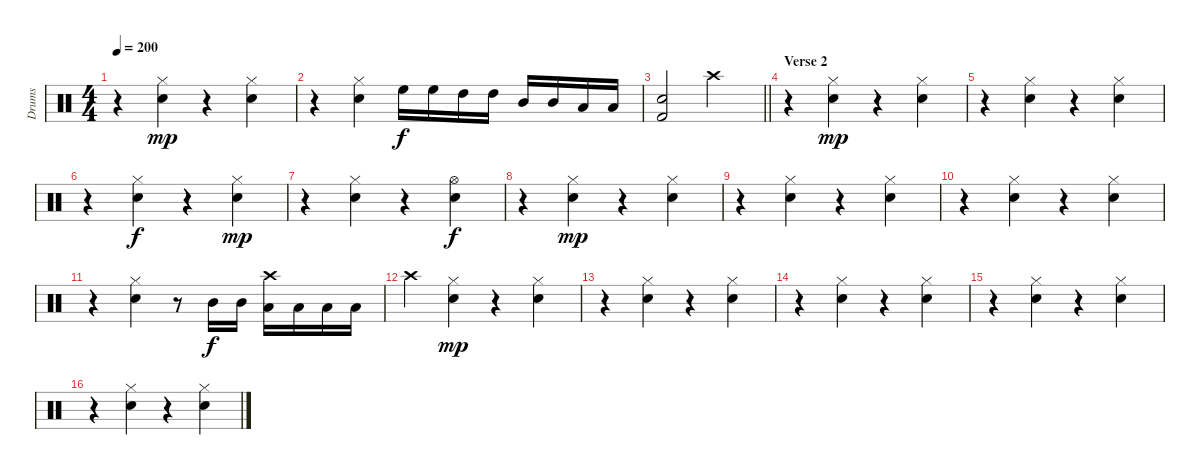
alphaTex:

\track ("Drums" "Drums") {instrument percussion}
\staff {score}
\articulation defaults
\ts (4 4)
\tempo 200
\clef neutral
\ks c
r.4{dy mp} ("Hi-Hat (closed)" "Snare (hit) 2").4 r.4 ("Hi-Hat (closed)" "Snare (hit) 2").4 |
r.4 ("Hi-Hat (closed)" "Snare (hit) 2").4 "High Floor Tom (hit)".16{dy f} "High Floor Tom (hit)".16 "High Tom (hit)".16 "High Tom (hit)".16 "Mid Tom (hit)".16 "Mid Tom (hit)".16 "Low Tom (hit)".16 "Low Tom (hit)".16 |
\barLineRight lightlight
("Snare (hit) 2" "Kick (hit) 2").2 "Crash high (hit)".2 |
\section ("" "Verse 2")
r.4 ("Hi-Hat (closed)" "Snare (hit) 2").4{dy mp} r.4 ("Hi-Hat (closed)" "Snare (hit) 2").4 |
r.4 ("Hi-Hat (closed)" "Snare (hit) 2").4 r.4 ("Hi-Hat (closed)" "Snare (hit) 2").4 |
r.4 ("Hi-Hat (closed)" "Snare (hit) 2").4{dy f} r.4 ("Hi-Hat (closed)" "Snare (hit) 2").4{dy mp} |
r.4 ("Hi-Hat (closed)" "Snare (hit) 2").4 r.4 ("Hi-Hat (open)" "Snare (hit) 2").4{dy f} |
r.4 ("Hi-Hat (closed)" "Snare (hit) 2").4{dy mp} r.4 ("Hi-Hat (closed)" "Snare (hit) 2").4 |
r.4 ("Hi-Hat (closed)" "Snare (hit) 2").4 r.4 ("Hi-Hat (closed)" "Snare (hit) 2").4 |
r.4 ("Hi-Hat (closed)" "Snare (hit) 2").4 r.4 ("Hi-Hat (closed)" "Snare (hit) 2").4 |
r.4 ("Hi-Hat (closed)" "Snare (hit) 2").4 r.8 "Mid Tom (hit)".16{dy f} "Mid Tom (hit)".16 ("Crash high (hit)" "Low Tom (hit)").16 "Low Tom (hit)".16 "Low Tom (hit)".16 "Low Tom (hit)".16 |
"Crash high (hit)".4 ("Hi-Hat (closed)" "Snare (hit) 2").4{dy mp} r.4 ("Hi-Hat (closed)" "Snare (hit) 2").4 |
r.4 ("Hi-Hat (closed)" "Snare (hit) 2").4 r.4 ("Hi-Hat (closed)" "Snare (hit) 2").4 |
r.4 ("Hi-Hat (closed)" "Snare (hit) 2").4 r.4 ("Hi-Hat (closed)" "Snare (hit) 2").4 |
r.4 ("Hi-Hat (closed)" "Snare (hit) 2").4 r.4 ("Hi-Hat (closed)" "Snare (hit) 2").4 |
r.4 ("Hi-Hat (closed)" "Snare (hit) 2").4 r.4 ("Hi-Hat (closed)" "Snare (hit) 2").4
